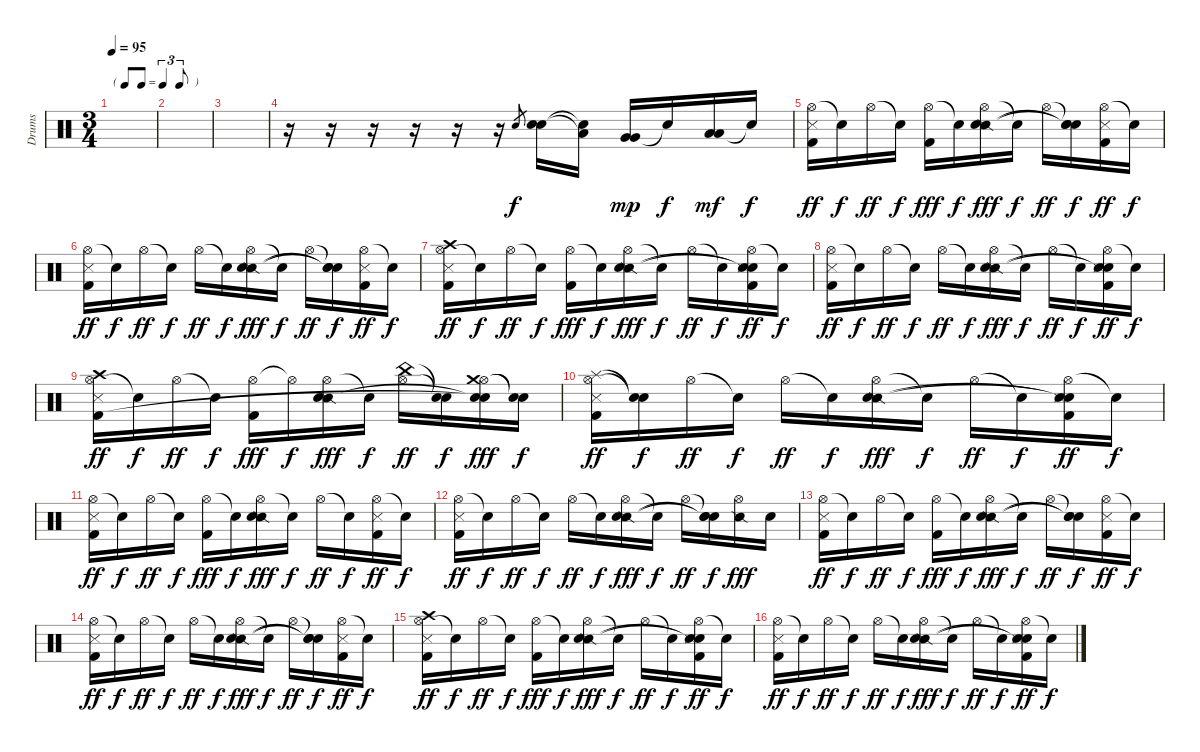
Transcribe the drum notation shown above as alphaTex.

\track ("Drums" "Drums") {instrument percussion}
\staff {score}
\articulation defaults
\ts (3 4)
\tf triplet8th
\tempo 95
\clef neutral
\ks c
|
|
|
r.16 r.16 r.16 r.16 r.16 r.16 "Electric Snare (hit)".8{gr} ("Snare (hit) 2" "Electric Snare (hit)").16 ("Low Floor Tom (hit)"{t} "Snare (hit)"{t}).16{dy f} ("Very Low Tom (hit)" "Very Low Tom (hit)").16{dy mp balance 0} "Snare (hit)"{t}.16{dy f} ("Low Floor Tom (hit)" "Low Floor Tom (hit)").16{dy mf balance 16} "Snare (hit)"{t}.16{dy f} |
("Hi-Hat (open)" "Metronome (hit)" "Kick (hit) 2").16{dy ff balance 8} "Snare (hit)"{t}.16{dy f} "Hi-Hat (open)".16{dy ff} "Snare (hit)"{t}.16{dy f} ("Hi-Hat (open)" "Kick (hit) 2").16{dy fff} "Snare (hit)"{t}.16{dy f} ("Hi-Hat (open)" "Snare (side stick) 2" "Electric Snare (hit)").16{dy fff} "Snare (hit)"{t}.16{dy f} "Hi-Hat (open)".16{dy ff} ("Snare (hit)"{t} "Snare (hit)"{t} "Snare (hit)"{t}).16{dy f} ("Hi-Hat (open)" "Metronome (hit)" "Kick (hit) 2").16{dy ff} "Snare (hit)"{t}.16{dy f} |
("Hi-Hat (open)" "Metronome (hit)" "Kick (hit) 2").16{dy ff} "Snare (hit)"{t}.16{dy f} "Hi-Hat (open)".16{dy ff} "Snare (hit)"{t}.16{dy f} "Hi-Hat (open)".16{dy ff} "Snare (hit)"{t}.16{dy f} ("Hi-Hat (open)" "Snare (side stick) 2" "Electric Snare (hit)").16{dy fff} "Snare (hit)"{t}.16{dy f} "Hi-Hat (open)".16{dy ff} ("Snare (hit)"{t} "Snare (hit)"{t} "Snare (hit)"{t}).16{dy f} ("Hi-Hat (open)" "Metronome (hit)" "Kick (hit) 2").16{dy ff} "Snare (hit)"{t}.16{dy f} |
("Hi-Hat (open)" "Crash high (hit)" "Metronome (hit)" "Kick (hit) 2").16{dy ff} "Snare (hit)"{t}.16{dy f} "Hi-Hat (open)".16{dy ff} "Snare (hit)"{t}.16{dy f} ("Hi-Hat (open)" "Kick (hit) 2").16{dy fff} "Snare (hit)"{t}.16{dy f} ("Hi-Hat (open)" "Snare (side stick) 2" "Electric Snare (hit)").16{dy fff} "Snare (hit)"{t}.16{dy f} "Hi-Hat (open)".16{dy ff} "Snare (hit)"{t}.16{dy f} ("Hi-Hat (open)" "Snare (hit)"{t} "Snare (hit)"{t} "Metronome (hit)" "Kick (hit) 2").16{dy ff} "Snare (hit)"{t}.16{dy f} |
("Hi-Hat (open)" "Metronome (hit)" "Kick (hit) 2").16{dy ff} "Snare (hit)"{t}.16{dy f} "Hi-Hat (open)".16{dy ff} "Snare (hit)"{t}.16{dy f} "Hi-Hat (open)".16{dy ff} "Snare (hit)"{t}.16{dy f} ("Hi-Hat (open)" "Snare (side stick) 2" "Electric Snare (hit)").16{dy fff} "Snare (hit)"{t}.16{dy f} "Hi-Hat (open)".16{dy ff} "Snare (hit)"{t}.16{dy f} ("Hi-Hat (open)" "Snare (hit)"{t} "Snare (hit)"{t} "Metronome (hit)" "Kick (hit) 2").16{dy ff} "Snare (hit)"{t}.16{dy f} |
("Hi-Hat (open)" "Crash high (hit)" "Metronome (hit)" "Kick (hit) 2").16{dy ff} "Snare (hit)"{t}.16{dy f} "Hi-Hat (open)".16{dy ff} "Snare (hit)"{t}.16{dy f} ("Hi-Hat (open)" "Kick (hit) 2").16{dy fff} "Hi-Hat (open)"{t}.16{dy f} ("Hi-Hat (open)" "Snare (side stick) 2" "Electric Snare (hit)").16{dy fff} "Snare (hit)"{t}.16{dy f} ("Hi-Hat (open)" "China (hit)").16{dy ff} ("Snare (hit)"{t} "Snare (hit)"{t}).16{dy f} ("Hi-Hat (open)" "Crash medium (hit)" "Snare (hit)"{t} "Snare (hit)"{t}).16{dy fff} ("Snare (hit)"{t} "Snare (hit)"{t}).16{dy f} |
("Hi-Hat (open)" "Splash (hit)" "Metronome (hit)" "Kick (hit) 2").16{dy ff} ("Snare (hit)"{t} "Snare (hit)"{t}).16{dy f} "Hi-Hat (open)".16{dy ff} "Snare (hit)"{t}.16{dy f} "Hi-Hat (open)".16{dy ff} "Snare (hit)"{t}.16{dy f} ("Hi-Hat (open)" "Snare (side stick) 2" "Electric Snare (hit)").16{dy fff} "Snare (hit)"{t}.16{dy f} "Hi-Hat (open)".16{dy ff} "Snare (hit)"{t}.16{dy f} ("Hi-Hat (open)" "Snare (hit)"{t} "Snare (hit)"{t} "Metronome (hit)" "Kick (hit) 2").16{dy ff} "Snare (hit)"{t}.16{dy f} |
("Hi-Hat (open)" "Metronome (hit)" "Kick (hit) 2").16{dy ff} "Snare (hit)"{t}.16{dy f} "Hi-Hat (open)".16{dy ff} "Snare (hit)"{t}.16{dy f} ("Hi-Hat (open)" "Kick (hit) 2").16{dy fff} "Snare (hit)"{t}.16{dy f} ("Hi-Hat (open)" "Snare (side stick) 2" "Electric Snare (hit)").16{dy fff} "Snare (hit)"{t}.16{dy f} "Hi-Hat (open)".16{dy ff} "Snare (hit)"{t}.16{dy f} ("Hi-Hat (open)" "Metronome (hit)" "Kick (hit) 2").16{dy ff} "Snare (hit)"{t}.16{dy f} |
("Hi-Hat (open)" "Metronome (hit)" "Kick (hit) 2").16{dy ff} "Snare (hit)"{t}.16{dy f} "Hi-Hat (open)".16{dy ff} "Snare (hit)"{t}.16{dy f} "Hi-Hat (open)".16{dy ff} "Snare (hit)"{t}.16{dy f} ("Hi-Hat (open)" "Snare (side stick) 2" "Electric Snare (hit)").16{dy fff} "Snare (hit)"{t}.16{dy f} "Hi-Hat (open)".16{dy ff} ("Snare (hit)"{t} "Snare (hit)"{t} "Snare (hit)"{t}).16{dy f} ("Hi-Hat (open)" "Snare (side stick) 2").16{dy fff} "Electric Snare (hit)".16 |
("Hi-Hat (open)" "Metronome (hit)" "Kick (hit) 2").16{dy ff balance 8} "Snare (hit)"{t}.16{dy f} "Hi-Hat (open)".16{dy ff} "Snare (hit)"{t}.16{dy f} ("Hi-Hat (open)" "Kick (hit) 2").16{dy fff} "Snare (hit)"{t}.16{dy f} ("Hi-Hat (open)" "Snare (side stick) 2" "Electric Snare (hit)").16{dy fff} "Snare (hit)"{t}.16{dy f} "Hi-Hat (open)".16{dy ff} ("Snare (hit)"{t} "Snare (hit)"{t} "Snare (hit)"{t}).16{dy f} ("Hi-Hat (open)" "Metronome (hit)" "Kick (hit) 2").16{dy ff} "Snare (hit)"{t}.16{dy f} |
("Hi-Hat (open)" "Metronome (hit)" "Kick (hit) 2").16{dy ff} "Snare (hit)"{t}.16{dy f} "Hi-Hat (open)".16{dy ff} "Snare (hit)"{t}.16{dy f} "Hi-Hat (open)".16{dy ff} "Snare (hit)"{t}.16{dy f} ("Hi-Hat (open)" "Snare (side stick) 2" "Electric Snare (hit)").16{dy fff} "Snare (hit)"{t}.16{dy f} "Hi-Hat (open)".16{dy ff} ("Snare (hit)"{t} "Snare (hit)"{t} "Snare (hit)"{t}).16{dy f} ("Hi-Hat (open)" "Metronome (hit)" "Kick (hit) 2").16{dy ff} "Snare (hit)"{t}.16{dy f} |
("Hi-Hat (open)" "Crash high (hit)" "Metronome (hit)" "Kick (hit) 2").16{dy ff} "Snare (hit)"{t}.16{dy f} "Hi-Hat (open)".16{dy ff} "Snare (hit)"{t}.16{dy f} ("Hi-Hat (open)" "Kick (hit) 2").16{dy fff} "Snare (hit)"{t}.16{dy f} ("Hi-Hat (open)" "Snare (side stick) 2" "Electric Snare (hit)").16{dy fff} "Snare (hit)"{t}.16{dy f} "Hi-Hat (open)".16{dy ff} "Snare (hit)"{t}.16{dy f} ("Hi-Hat (open)" "Snare (hit)"{t} "Snare (hit)"{t} "Metronome (hit)" "Kick (hit) 2").16{dy ff} "Snare (hit)"{t}.16{dy f} |
("Hi-Hat (open)" "Metronome (hit)" "Kick (hit) 2").16{dy ff} "Snare (hit)"{t}.16{dy f} "Hi-Hat (open)".16{dy ff} "Snare (hit)"{t}.16{dy f} "Hi-Hat (open)".16{dy ff} "Snare (hit)"{t}.16{dy f} ("Hi-Hat (open)" "Snare (side stick) 2" "Electric Snare (hit)").16{dy fff} "Snare (hit)"{t}.16{dy f} "Hi-Hat (open)".16{dy ff} "Snare (hit)"{t}.16{dy f} ("Hi-Hat (open)" "Snare (hit)"{t} "Snare (hit)"{t} "Metronome (hit)" "Kick (hit) 2").16{dy ff} "Snare (hit)"{t}.16{dy f}
